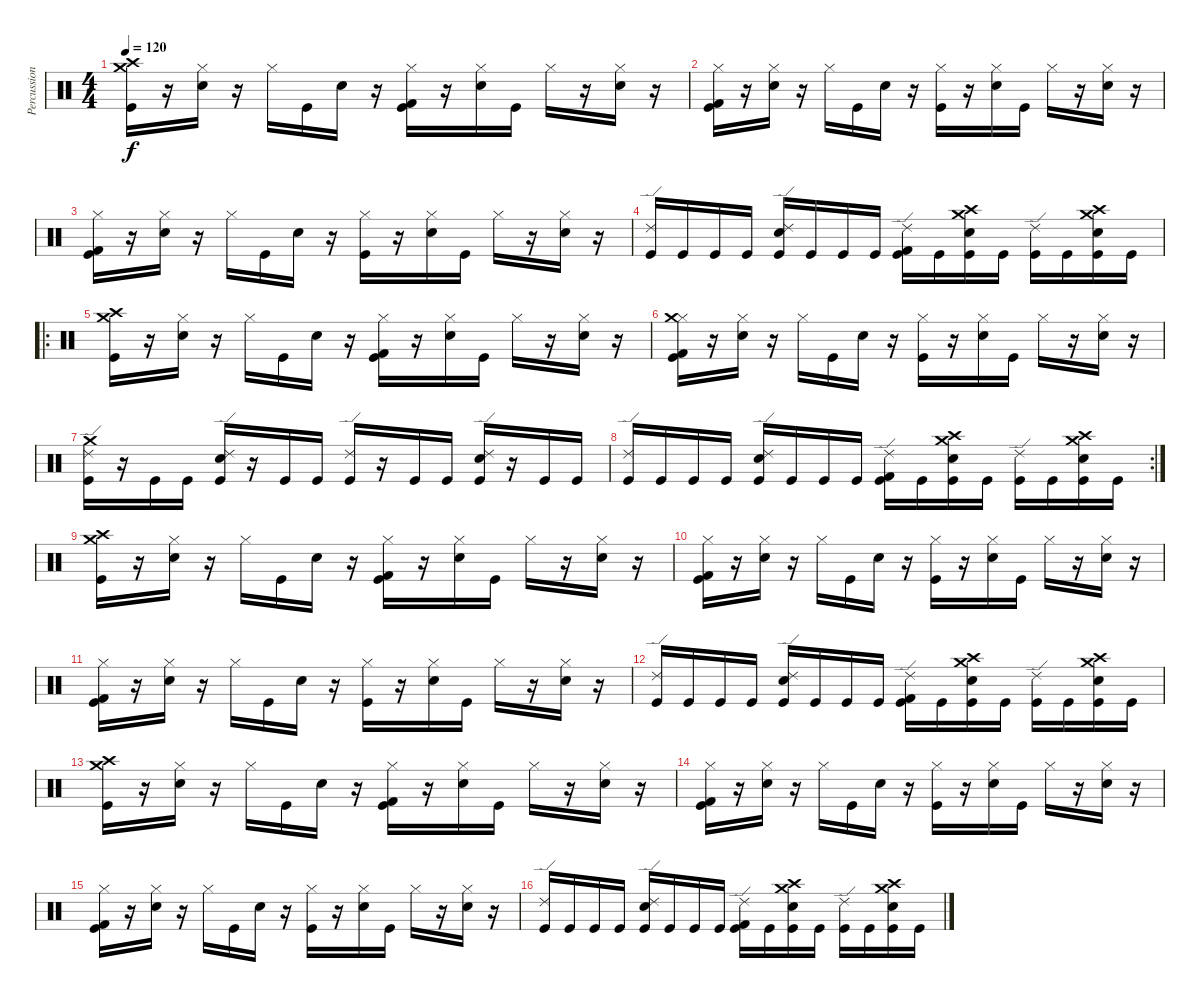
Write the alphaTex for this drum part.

\track ("Percussion" "Percussion") {instrument percussion}
\staff {score}
\articulation defaults
\ts (4 4)
\tempo 120
\clef neutral
\ks c
("Crash medium (hit)" "Crash high (hit)" "Kick (hit)").16{dy f} r.16 ("Hi-Hat (closed)" "Snare (hit) 2").16 r.16 "Hi-Hat (closed)".16 "Kick (hit)".16 "Snare (hit) 2".16 r.16 ("Hi-Hat (closed)" "Kick (hit) 2" "Kick (hit)").16 r.16 ("Hi-Hat (closed)" "Snare (hit) 2").16 "Kick (hit)".16 "Hi-Hat (closed)".16 r.16 ("Hi-Hat (closed)" "Snare (hit) 2").16 r.16 |
("Hi-Hat (closed)" "Kick (hit) 2" "Kick (hit)").16 r.16 ("Hi-Hat (closed)" "Snare (hit) 2").16 r.16 "Hi-Hat (closed)".16 "Kick (hit)".16 "Snare (hit) 2".16 r.16 ("Hi-Hat (closed)" "Kick (hit)").16 r.16 ("Hi-Hat (closed)" "Snare (hit) 2").16 "Kick (hit)".16 "Hi-Hat (closed)".16 r.16 ("Hi-Hat (closed)" "Snare (hit) 2").16 r.16 |
("Hi-Hat (closed)" "Kick (hit) 2" "Kick (hit)").16 r.16 ("Hi-Hat (closed)" "Snare (hit) 2").16 r.16 "Hi-Hat (closed)".16 "Kick (hit)".16 "Snare (hit) 2".16 r.16 ("Hi-Hat (closed)" "Kick (hit)").16 r.16 ("Hi-Hat (closed)" "Snare (hit) 2").16 "Kick (hit)".16 "Hi-Hat (closed)".16 r.16 ("Hi-Hat (closed)" "Snare (hit) 2").16 r.16 |
("Ride (edge) 2" "Kick (hit)").16 "Kick (hit)".16 "Kick (hit)".16 "Kick (hit)".16 ("Snare (hit) 2" "Ride (edge) 2" "Kick (hit)").16 "Kick (hit)".16 "Kick (hit)".16 "Kick (hit)".16 ("Ride (edge) 2" "Kick (hit) 2" "Kick (hit)").16 "Kick (hit)".16 ("Crash high (hit)" "Snare (hit) 2" "Crash medium (hit)" "Kick (hit)").16 "Kick (hit)".16 ("Ride (edge) 2" "Kick (hit)").16 "Kick (hit)".16 ("Snare (hit) 2" "Crash high (hit)" "Crash medium (hit)" "Kick (hit)").16 "Kick (hit)".16 |
\ro
("Crash medium (hit)" "Crash high (hit)" "Kick (hit)").16 r.16 ("Hi-Hat (closed)" "Snare (hit) 2").16 r.16 "Hi-Hat (closed)".16 "Kick (hit)".16 "Snare (hit) 2".16 r.16 ("Hi-Hat (closed)" "Kick (hit) 2" "Kick (hit)").16 r.16 ("Hi-Hat (closed)" "Snare (hit) 2").16 "Kick (hit)".16 "Hi-Hat (closed)".16 r.16 ("Hi-Hat (closed)" "Snare (hit) 2").16 r.16 |
("Hi-Hat (closed)" "Kick (hit) 2" "Kick (hit)" "Crash medium (hit)").16 r.16 ("Hi-Hat (closed)" "Snare (hit) 2").16 r.16 "Hi-Hat (closed)".16 "Kick (hit)".16 "Snare (hit) 2".16 r.16 ("Hi-Hat (closed)" "Kick (hit)").16 r.16 ("Hi-Hat (closed)" "Snare (hit) 2").16 "Kick (hit)".16 "Hi-Hat (closed)".16 r.16 ("Hi-Hat (closed)" "Snare (hit) 2").16 r.16 |
("Ride (edge) 2" "Kick (hit)" "Crash medium (hit)").16 r.16 "Kick (hit)".16 "Kick (hit)".16 ("Snare (hit) 2" "Ride (edge) 2" "Kick (hit)").16 r.16 "Kick (hit)".16 "Kick (hit)".16 ("Ride (edge) 2" "Kick (hit)").16 r.16 "Kick (hit)".16 "Kick (hit)".16 ("Snare (hit) 2" "Ride (edge) 2" "Kick (hit)").16 r.16 "Kick (hit)".16 "Kick (hit)".16 |
\rc 2
("Ride (edge) 2" "Kick (hit)").16 "Kick (hit)".16 "Kick (hit)".16 "Kick (hit)".16 ("Snare (hit) 2" "Ride (edge) 2" "Kick (hit)").16 "Kick (hit)".16 "Kick (hit)".16 "Kick (hit)".16 ("Ride (edge) 2" "Kick (hit) 2" "Kick (hit)").16 "Kick (hit)".16 ("Crash high (hit)" "Snare (hit) 2" "Crash medium (hit)" "Kick (hit)").16 "Kick (hit)".16 ("Ride (edge) 2" "Kick (hit)").16 "Kick (hit)".16 ("Snare (hit) 2" "Crash high (hit)" "Crash medium (hit)" "Kick (hit)").16 "Kick (hit)".16 |
("Crash medium (hit)" "Crash high (hit)" "Kick (hit)").16 r.16 ("Hi-Hat (closed)" "Snare (hit) 2").16 r.16 "Hi-Hat (closed)".16 "Kick (hit)".16 "Snare (hit) 2".16 r.16 ("Hi-Hat (closed)" "Kick (hit) 2" "Kick (hit)").16 r.16 ("Hi-Hat (closed)" "Snare (hit) 2").16 "Kick (hit)".16 "Hi-Hat (closed)".16 r.16 ("Hi-Hat (closed)" "Snare (hit) 2").16 r.16 |
("Hi-Hat (closed)" "Kick (hit) 2" "Kick (hit)").16 r.16 ("Hi-Hat (closed)" "Snare (hit) 2").16 r.16 "Hi-Hat (closed)".16 "Kick (hit)".16 "Snare (hit) 2".16 r.16 ("Hi-Hat (closed)" "Kick (hit)").16 r.16 ("Hi-Hat (closed)" "Snare (hit) 2").16 "Kick (hit)".16 "Hi-Hat (closed)".16 r.16 ("Hi-Hat (closed)" "Snare (hit) 2").16 r.16 |
("Hi-Hat (closed)" "Kick (hit) 2" "Kick (hit)").16 r.16 ("Hi-Hat (closed)" "Snare (hit) 2").16 r.16 "Hi-Hat (closed)".16 "Kick (hit)".16 "Snare (hit) 2".16 r.16 ("Hi-Hat (closed)" "Kick (hit)").16 r.16 ("Hi-Hat (closed)" "Snare (hit) 2").16 "Kick (hit)".16 "Hi-Hat (closed)".16 r.16 ("Hi-Hat (closed)" "Snare (hit) 2").16 r.16 |
("Ride (edge) 2" "Kick (hit)").16 "Kick (hit)".16 "Kick (hit)".16 "Kick (hit)".16 ("Snare (hit) 2" "Ride (edge) 2" "Kick (hit)").16 "Kick (hit)".16 "Kick (hit)".16 "Kick (hit)".16 ("Ride (edge) 2" "Kick (hit) 2" "Kick (hit)").16 "Kick (hit)".16 ("Crash high (hit)" "Snare (hit) 2" "Crash medium (hit)" "Kick (hit)").16 "Kick (hit)".16 ("Ride (edge) 2" "Kick (hit)").16 "Kick (hit)".16 ("Snare (hit) 2" "Crash high (hit)" "Crash medium (hit)" "Kick (hit)").16 "Kick (hit)".16 |
("Crash medium (hit)" "Crash high (hit)" "Kick (hit)").16 r.16 ("Hi-Hat (closed)" "Snare (hit) 2").16 r.16 "Hi-Hat (closed)".16 "Kick (hit)".16 "Snare (hit) 2".16 r.16 ("Hi-Hat (closed)" "Kick (hit) 2" "Kick (hit)").16 r.16 ("Hi-Hat (closed)" "Snare (hit) 2").16 "Kick (hit)".16 "Hi-Hat (closed)".16 r.16 ("Hi-Hat (closed)" "Snare (hit) 2").16 r.16 |
("Hi-Hat (closed)" "Kick (hit) 2" "Kick (hit)").16 r.16 ("Hi-Hat (closed)" "Snare (hit) 2").16 r.16 "Hi-Hat (closed)".16 "Kick (hit)".16 "Snare (hit) 2".16 r.16 ("Hi-Hat (closed)" "Kick (hit)").16 r.16 ("Hi-Hat (closed)" "Snare (hit) 2").16 "Kick (hit)".16 "Hi-Hat (closed)".16 r.16 ("Hi-Hat (closed)" "Snare (hit) 2").16 r.16 |
("Hi-Hat (closed)" "Kick (hit) 2" "Kick (hit)").16 r.16 ("Hi-Hat (closed)" "Snare (hit) 2").16 r.16 "Hi-Hat (closed)".16 "Kick (hit)".16 "Snare (hit) 2".16 r.16 ("Hi-Hat (closed)" "Kick (hit)").16 r.16 ("Hi-Hat (closed)" "Snare (hit) 2").16 "Kick (hit)".16 "Hi-Hat (closed)".16 r.16 ("Hi-Hat (closed)" "Snare (hit) 2").16 r.16 |
("Ride (edge) 2" "Kick (hit)").16 "Kick (hit)".16 "Kick (hit)".16 "Kick (hit)".16 ("Snare (hit) 2" "Ride (edge) 2" "Kick (hit)").16 "Kick (hit)".16 "Kick (hit)".16 "Kick (hit)".16 ("Ride (edge) 2" "Kick (hit) 2" "Kick (hit)").16 "Kick (hit)".16 ("Crash high (hit)" "Snare (hit) 2" "Crash medium (hit)" "Kick (hit)").16 "Kick (hit)".16 ("Ride (edge) 2" "Kick (hit)").16 "Kick (hit)".16 ("Snare (hit) 2" "Crash high (hit)" "Crash medium (hit)" "Kick (hit)").16 "Kick (hit)".16
